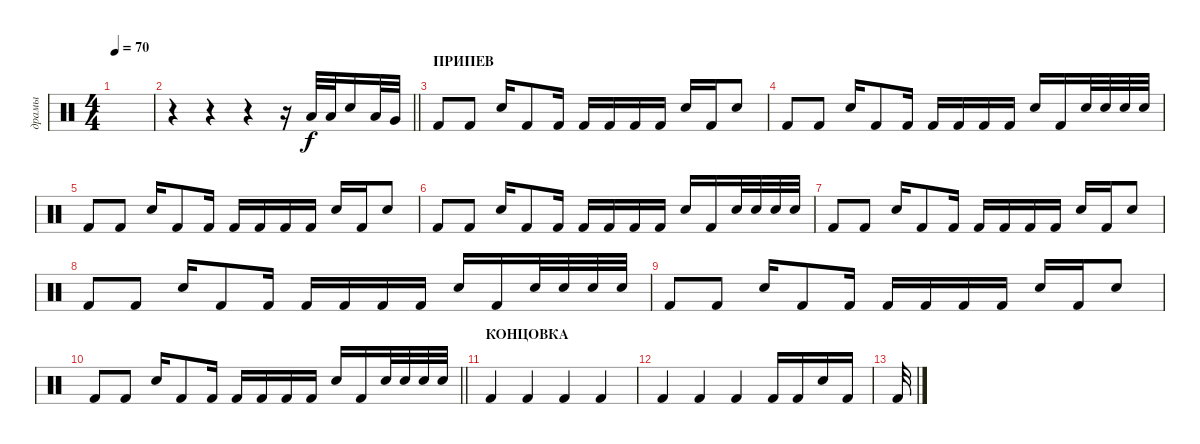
\track ("драмы" "драмы") {instrument percussion}
\staff {score}
\articulation defaults
\ts (4 4)
\tempo 70
\clef neutral
\ks c
|
\barLineRight lightlight
r.4 r.4 r.4 r.16 "Low Tom (hit)".32 "Low Tom (hit)".32 "Electric Snare (hit)".16 "Low Tom (hit)".32 "Very Low Tom (hit)".32 |
\section ("" "ПРИПЕВ")
"Kick (hit) 2".8 "Kick (hit) 2".8 "Electric Snare (hit)".16 "Kick (hit) 2".8 "Kick (hit) 2".16 "Kick (hit) 2".16 "Kick (hit) 2".16 "Kick (hit) 2".16 "Kick (hit) 2".16 "Electric Snare (hit)".16 "Kick (hit) 2".16 "Electric Snare (hit)".8 |
"Kick (hit) 2".8 "Kick (hit) 2".8 "Electric Snare (hit)".16 "Kick (hit) 2".8 "Kick (hit) 2".16 "Kick (hit) 2".16 "Kick (hit) 2".16 "Kick (hit) 2".16 "Kick (hit) 2".16 "Electric Snare (hit)".16 "Kick (hit) 2".16 "Electric Snare (hit)".32 "Electric Snare (hit)".32 "Electric Snare (hit)".32 "Electric Snare (hit)".32 |
"Kick (hit) 2".8 "Kick (hit) 2".8 "Electric Snare (hit)".16 "Kick (hit) 2".8 "Kick (hit) 2".16 "Kick (hit) 2".16 "Kick (hit) 2".16 "Kick (hit) 2".16 "Kick (hit) 2".16 "Electric Snare (hit)".16 "Kick (hit) 2".16 "Electric Snare (hit)".8 |
"Kick (hit) 2".8 "Kick (hit) 2".8 "Electric Snare (hit)".16 "Kick (hit) 2".8 "Kick (hit) 2".16 "Kick (hit) 2".16 "Kick (hit) 2".16 "Kick (hit) 2".16 "Kick (hit) 2".16 "Electric Snare (hit)".16 "Kick (hit) 2".16 "Electric Snare (hit)".32 "Electric Snare (hit)".32 "Electric Snare (hit)".32 "Electric Snare (hit)".32 |
"Kick (hit) 2".8 "Kick (hit) 2".8 "Electric Snare (hit)".16 "Kick (hit) 2".8 "Kick (hit) 2".16 "Kick (hit) 2".16 "Kick (hit) 2".16 "Kick (hit) 2".16 "Kick (hit) 2".16 "Electric Snare (hit)".16 "Kick (hit) 2".16 "Electric Snare (hit)".8 |
"Kick (hit) 2".8 "Kick (hit) 2".8 "Electric Snare (hit)".16 "Kick (hit) 2".8 "Kick (hit) 2".16 "Kick (hit) 2".16 "Kick (hit) 2".16 "Kick (hit) 2".16 "Kick (hit) 2".16 "Electric Snare (hit)".16 "Kick (hit) 2".16 "Electric Snare (hit)".32 "Electric Snare (hit)".32 "Electric Snare (hit)".32 "Electric Snare (hit)".32 |
"Kick (hit) 2".8 "Kick (hit) 2".8 "Electric Snare (hit)".16 "Kick (hit) 2".8 "Kick (hit) 2".16 "Kick (hit) 2".16 "Kick (hit) 2".16 "Kick (hit) 2".16 "Kick (hit) 2".16 "Electric Snare (hit)".16 "Kick (hit) 2".16 "Electric Snare (hit)".8 |
\barLineRight lightlight "Kick (hit) 2".8 "Kick (hit) 2".8 "Electric Snare (hit)".16 "Kick (hit) 2".8 "Kick (hit) 2".16 "Kick (hit) 2".16 "Kick (hit) 2".16 "Kick (hit) 2".16 "Kick (hit) 2".16 "Electric Snare (hit)".16 "Kick (hit) 2".16 "Electric Snare (hit)".32 "Electric Snare (hit)".32 "Electric Snare (hit)".32 "Electric Snare (hit)".32
|
\section ("" "КОНЦОВКА")
"Kick (hit) 2".4 "Kick (hit) 2".4 "Kick (hit) 2".4 "Kick (hit) 2".4 |
"Kick (hit) 2".4 "Kick (hit) 2".4 "Kick (hit) 2".4 "Kick (hit) 2".16 "Kick (hit) 2".16 "Electric Snare (hit)".16 "Kick (hit) 2".16 |
"Kick (hit) 2".32
